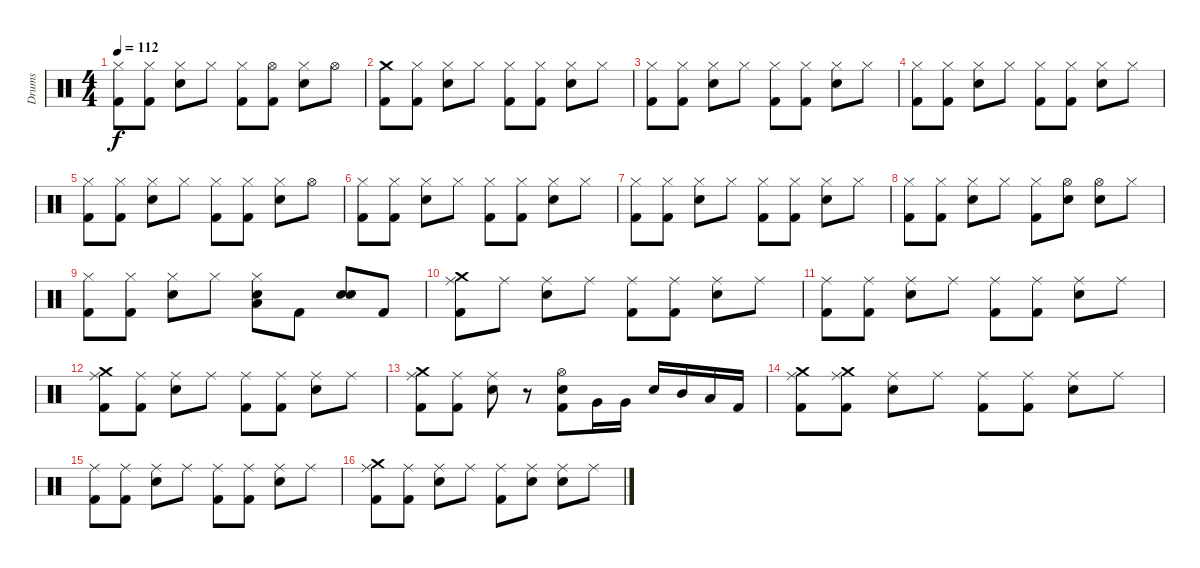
\track ("Drums" "Drums") {instrument percussion}
\staff {score}
\articulation defaults
\ts (4 4)
\tempo 112
\clef neutral
\ks c
("Kick (hit) 2" "Hi-Hat (closed)").8{dy f} ("Kick (hit) 2" "Hi-Hat (closed)").8 ("Electric Snare (hit)" "Hi-Hat (closed)").8 "Hi-Hat (closed)".8 ("Kick (hit) 2" "Hi-Hat (closed)").8 ("Kick (hit) 2" "Hi-Hat (open)").8 ("Electric Snare (hit)" "Hi-Hat (closed)").8 "Hi-Hat (open)".8 |
("Kick (hit) 2" "Crash medium (hit)").8 ("Kick (hit) 2" "Hi-Hat (closed)").8 ("Electric Snare (hit)" "Hi-Hat (closed)").8 "Hi-Hat (closed)".8 ("Kick (hit) 2" "Hi-Hat (closed)").8 ("Kick (hit) 2" "Hi-Hat (closed)").8 ("Electric Snare (hit)" "Hi-Hat (closed)").8 "Hi-Hat (closed)".8 |
("Kick (hit) 2" "Hi-Hat (closed)").8 ("Kick (hit) 2" "Hi-Hat (closed)").8 ("Electric Snare (hit)" "Hi-Hat (closed)").8 "Hi-Hat (closed)".8 ("Kick (hit) 2" "Hi-Hat (closed)").8 ("Kick (hit) 2" "Hi-Hat (closed)").8 ("Electric Snare (hit)" "Hi-Hat (closed)").8 "Hi-Hat (closed)".8 |
("Kick (hit) 2" "Hi-Hat (closed)").8 ("Kick (hit) 2" "Hi-Hat (closed)").8 ("Electric Snare (hit)" "Hi-Hat (closed)").8 "Hi-Hat (closed)".8 ("Kick (hit) 2" "Hi-Hat (closed)").8 ("Kick (hit) 2" "Hi-Hat (closed)").8 ("Electric Snare (hit)" "Hi-Hat (closed)").8 "Hi-Hat (closed)".8 |
("Kick (hit) 2" "Hi-Hat (closed)").8 ("Kick (hit) 2" "Hi-Hat (closed)").8 ("Electric Snare (hit)" "Hi-Hat (closed)").8 "Hi-Hat (closed)".8 ("Kick (hit) 2" "Hi-Hat (closed)").8 ("Kick (hit) 2" "Hi-Hat (closed)").8 ("Electric Snare (hit)" "Hi-Hat (closed)").8 "Hi-Hat (open)".8 |
("Kick (hit) 2" "Hi-Hat (closed)").8 ("Kick (hit) 2" "Hi-Hat (closed)").8 ("Electric Snare (hit)" "Hi-Hat (closed)").8 "Hi-Hat (closed)".8 ("Kick (hit) 2" "Hi-Hat (closed)").8 ("Kick (hit) 2" "Hi-Hat (closed)").8 ("Electric Snare (hit)" "Hi-Hat (closed)").8 "Hi-Hat (closed)".8 |
("Kick (hit) 2" "Hi-Hat (closed)").8 ("Kick (hit) 2" "Hi-Hat (closed)").8 ("Electric Snare (hit)" "Hi-Hat (closed)").8 "Hi-Hat (closed)".8 ("Kick (hit) 2" "Hi-Hat (closed)").8 ("Kick (hit) 2" "Hi-Hat (closed)").8 ("Electric Snare (hit)" "Hi-Hat (closed)").8 "Hi-Hat (closed)".8 |
("Kick (hit) 2" "Hi-Hat (closed)").8 ("Kick (hit) 2" "Hi-Hat (closed)").8 ("Electric Snare (hit)" "Hi-Hat (closed)").8 "Hi-Hat (closed)".8 ("Kick (hit) 2" "Hi-Hat (closed)").8 ("Electric Snare (hit)" "Hi-Hat (open)").8 ("Electric Snare (hit)" "Hi-Hat (open)").8 "Hi-Hat (closed)".8 |
("Kick (hit) 2" "Hi-Hat (closed)").8 ("Kick (hit) 2" "Hi-Hat (closed)").8 ("Electric Snare (hit)" "Hi-Hat (closed)").8 "Hi-Hat (closed)".8 ("Electric Snare (hit)" "Hi-Hat (closed)" "Low Tom (hit)").8 "Kick (hit) 2".8 ("Electric Snare (hit)" "Electric Snare (hit)").8 "Kick (hit) 2".8 |
("Kick (hit) 2" "Ride (middle)" "Crash medium (hit)").8 "Ride (middle)".8 ("Electric Snare (hit)" "Ride (middle)").8 "Ride (middle)".8 ("Kick (hit) 2" "Ride (middle)").8 ("Kick (hit) 2" "Ride (middle)").8 ("Electric Snare (hit)" "Ride (middle)").8 "Ride (middle)".8 |
("Kick (hit) 2" "Ride (middle)").8 ("Kick (hit) 2" "Ride (middle)").8 ("Electric Snare (hit)" "Ride (middle)").8 "Ride (middle)".8 ("Kick (hit) 2" "Ride (middle)").8 ("Kick (hit) 2" "Ride (middle)").8 ("Electric Snare (hit)" "Ride (middle)").8 "Ride (middle)".8 |
("Kick (hit) 2" "Ride (middle)" "Crash medium (hit)").8 ("Kick (hit) 2" "Ride (middle)").8 ("Electric Snare (hit)" "Ride (middle)").8 "Ride (middle)".8 ("Kick (hit) 2" "Ride (middle)").8 ("Kick (hit) 2" "Ride (middle)").8 ("Electric Snare (hit)" "Ride (middle)").8 "Ride (middle)".8 |
("Kick (hit) 2" "Ride (middle)" "Crash medium (hit)").8 ("Kick (hit) 2" "Ride (middle)").8 ("Electric Snare (hit)" "Ride (middle)").8 r.8 ("Kick (hit) 2" "Electric Snare (hit)" "Hi-Hat (open)").8 "Very Low Tom (hit)".16 "Very Low Tom (hit)".16 "Electric Snare (hit)".16 "Mid Tom (hit)".16 "Low Tom (hit)".16 "Kick (hit) 2".16 |
("Kick (hit) 2" "Ride (middle)" "Crash medium (hit)").8 ("Kick (hit) 2" "Ride (middle)" "Crash medium (hit)").8 ("Electric Snare (hit)" "Ride (middle)").8 "Ride (middle)".8 ("Kick (hit) 2" "Ride (middle)").8 ("Kick (hit) 2" "Ride (middle)").8 ("Electric Snare (hit)" "Ride (middle)").8 "Ride (middle)".8 |
("Kick (hit) 2" "Ride (middle)").8 ("Kick (hit) 2" "Ride (middle)").8 ("Electric Snare (hit)" "Ride (middle)").8 "Ride (middle)".8 ("Kick (hit) 2" "Ride (middle)").8 ("Kick (hit) 2" "Ride (middle)").8 ("Electric Snare (hit)" "Ride (middle)").8 "Ride (middle)".8 |
("Kick (hit) 2" "Ride (middle)" "Crash medium (hit)").8 ("Kick (hit) 2" "Ride (middle)").8 ("Electric Snare (hit)" "Ride (middle)").8 "Ride (middle)".8 ("Kick (hit) 2" "Ride (middle)").8 ("Electric Snare (hit)" "Ride (middle)").8 ("Electric Snare (hit)" "Ride (middle)").8 "Ride (middle)".8
